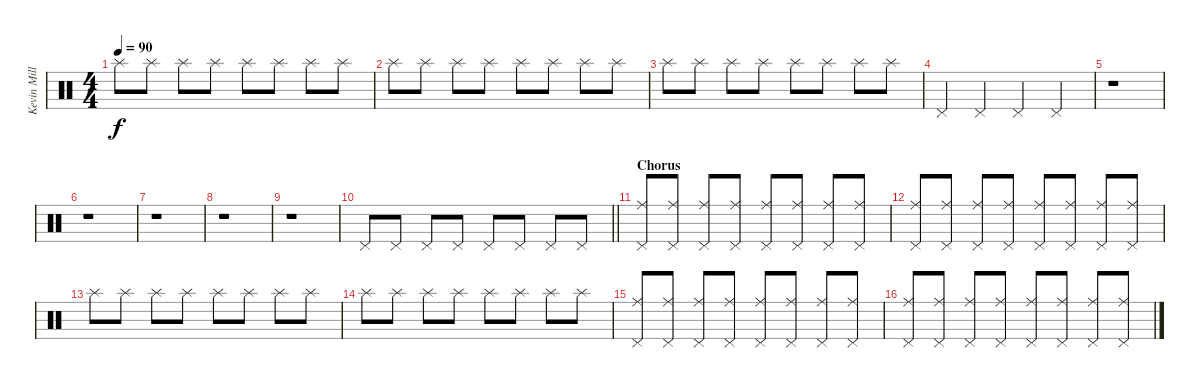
\track ("Kevin Miller (Drums)" "Kevin Mill") {instrument percussion}
\staff {score}
\articulation defaults
\ts (4 4)
\tempo 90
\clef neutral
\ks c "Splash (hit)".8{dy f} "Splash (hit)".8 "Splash (hit)".8 "Splash (hit)".8 "Splash (hit)".8 "Splash (hit)".8 "Splash (hit)".8 "Splash (hit)".8
|
"Splash (hit)".8 "Splash (hit)".8 "Splash (hit)".8 "Splash (hit)".8 "Splash (hit)".8 "Splash (hit)".8 "Splash (hit)".8 "Splash (hit)".8 |
"Splash (hit)".8 "Splash (hit)".8 "Splash (hit)".8 "Splash (hit)".8 "Splash (hit)".8 "Splash (hit)".8 "Splash (hit)".8 "Splash (hit)".8 |
"Pedal Hi-Hat (hit)".4 "Pedal Hi-Hat (hit)".4 "Pedal Hi-Hat (hit)".4 "Pedal Hi-Hat (hit)".4 |
r.1 |
r.1 |
r.1 |
r.1 |
r.1 |
\barLineRight lightlight "Pedal Hi-Hat (hit)".8 "Pedal Hi-Hat (hit)".8 "Pedal Hi-Hat (hit)".8 "Pedal Hi-Hat (hit)".8 "Pedal Hi-Hat (hit)".8 "Pedal Hi-Hat (hit)".8 "Pedal Hi-Hat (hit)".8 "Pedal Hi-Hat (hit)".8
|
\section ("" "Chorus")
("Ride (middle)" "Pedal Hi-Hat (hit)").8 ("Ride (middle)" "Pedal Hi-Hat (hit)").8 ("Ride (middle)" "Pedal Hi-Hat (hit)").8 ("Ride (middle)" "Pedal Hi-Hat (hit)").8 ("Ride (middle)" "Pedal Hi-Hat (hit)").8 ("Ride (middle)" "Pedal Hi-Hat (hit)").8 ("Ride (middle)" "Pedal Hi-Hat (hit)").8 ("Ride (middle)" "Pedal Hi-Hat (hit)").8 |
("Ride (middle)" "Pedal Hi-Hat (hit)").8 ("Ride (middle)" "Pedal Hi-Hat (hit)").8 ("Ride (middle)" "Pedal Hi-Hat (hit)").8 ("Ride (middle)" "Pedal Hi-Hat (hit)").8 ("Ride (middle)" "Pedal Hi-Hat (hit)").8 ("Ride (middle)" "Pedal Hi-Hat (hit)").8 ("Ride (middle)" "Pedal Hi-Hat (hit)").8 ("Ride (middle)" "Pedal Hi-Hat (hit)").8 |
"Splash (hit)".8 "Splash (hit)".8 "Splash (hit)".8 "Splash (hit)".8 "Splash (hit)".8 "Splash (hit)".8 "Splash (hit)".8 "Splash (hit)".8 |
"Splash (hit)".8 "Splash (hit)".8 "Splash (hit)".8 "Splash (hit)".8 "Splash (hit)".8 "Splash (hit)".8 "Splash (hit)".8 "Splash (hit)".8 |
("Ride (middle)" "Pedal Hi-Hat (hit)").8 ("Ride (middle)" "Pedal Hi-Hat (hit)").8 ("Ride (middle)" "Pedal Hi-Hat (hit)").8 ("Ride (middle)" "Pedal Hi-Hat (hit)").8 ("Ride (middle)" "Pedal Hi-Hat (hit)").8 ("Ride (middle)" "Pedal Hi-Hat (hit)").8 ("Ride (middle)" "Pedal Hi-Hat (hit)").8 ("Ride (middle)" "Pedal Hi-Hat (hit)").8 |
("Ride (middle)" "Pedal Hi-Hat (hit)").8 ("Ride (middle)" "Pedal Hi-Hat (hit)").8 ("Ride (middle)" "Pedal Hi-Hat (hit)").8 ("Ride (middle)" "Pedal Hi-Hat (hit)").8 ("Ride (middle)" "Pedal Hi-Hat (hit)").8 ("Ride (middle)" "Pedal Hi-Hat (hit)").8 ("Ride (middle)" "Pedal Hi-Hat (hit)").8 ("Ride (middle)" "Pedal Hi-Hat (hit)").8
